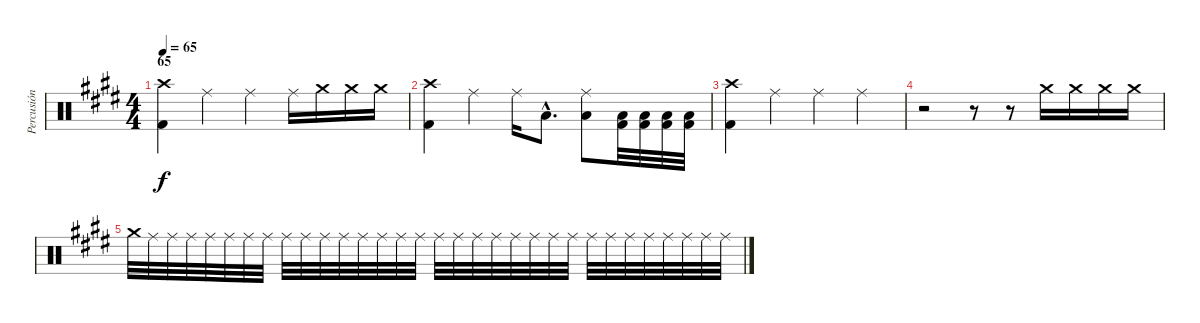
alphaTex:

\track ("Percusión" "Percusión") {instrument percussion}
\staff {score}
\articulation defaults
\ts (4 4)
\section ("" "65")
\tempo 65
\clef neutral
\ks e
("Crash high (hit)" "Kick (hit) 2").4{dy f} "Ride (middle)".4 "Ride (middle)".4 "Ride (middle)".16 "Crash medium (hit)".16 "Crash medium (hit)".16 "Crash medium (hit)".16 |
("Crash high (hit)" "Kick (hit) 2").4 "Ride (middle)".4 "Ride (middle)".16 "Low Tom (hit)"{hac}.8{d} ("Ride (middle)" "Low Tom (hit)").8 ("Low Tom (hit)" "Kick (hit) 2").32 ("Low Tom (hit)" "Kick (hit) 2").32 ("Low Tom (hit)" "Kick (hit) 2").32 ("Low Tom (hit)" "Kick (hit) 2").32 |
("Crash high (hit)" "Kick (hit) 2").4 "Ride (middle)".4 "Ride (middle)".4 "Ride (middle)".4 |
r.2 r.8 r.8 "Crash medium (hit)".16{volume 7} "Crash medium (hit)".16 "Crash medium (hit)".16 "Crash medium (hit)".16 |
"Crash medium (hit)".32 "Ride (middle)".32 "Ride (middle)".32 "Ride (middle)".32 "Ride (middle)".32 "Ride (middle)".32 "Ride (middle)".32 "Ride (middle)".32 "Ride (middle)".32 "Ride (middle)".32 "Ride (middle)".32 "Ride (middle)".32 "Ride (middle)".32 "Ride (middle)".32 "Ride (middle)".32 "Ride (middle)".32 "Ride (middle)".32 "Ride (middle)".32 "Ride (middle)".32 "Ride (middle)".32 "Ride (middle)".32 "Ride (middle)".32 "Ride (middle)".32 "Ride (middle)".32 "Ride (middle)".32 "Ride (middle)".32 "Ride (middle)".32 "Ride (middle)".32 "Ride (middle)".32 "Ride (middle)".32 "Ride (middle)".32 "Ride (middle)".32
